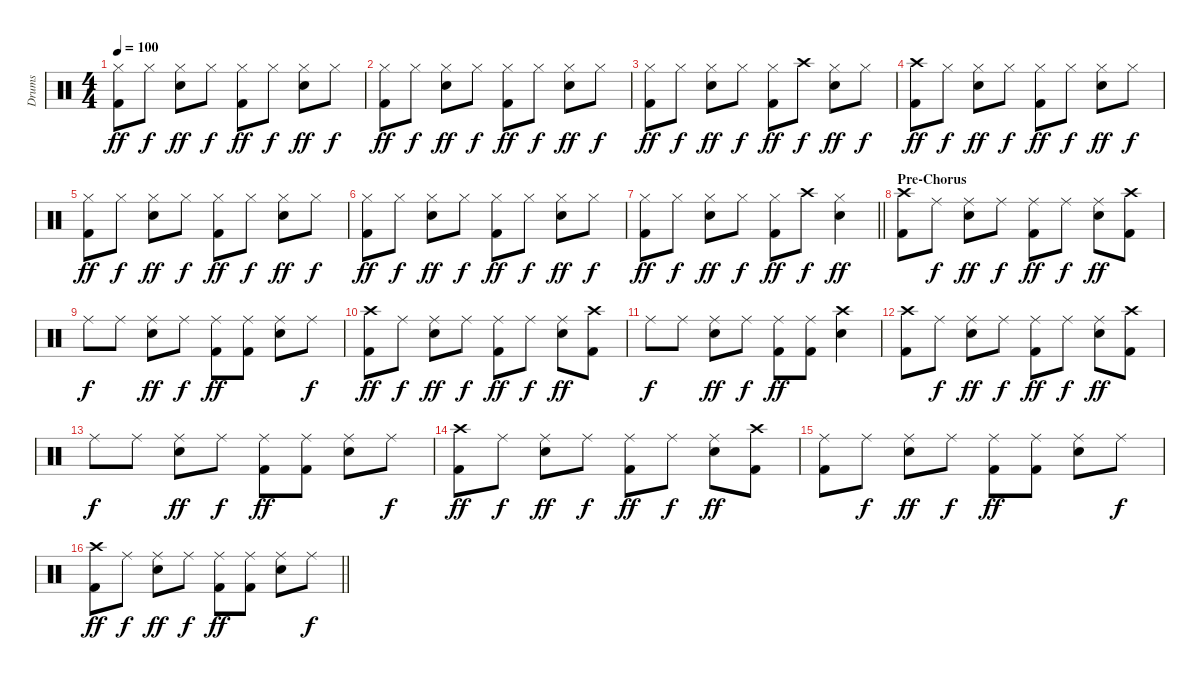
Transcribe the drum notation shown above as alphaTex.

\track ("Drums" "Drums") {instrument percussion}
\staff {score}
\articulation defaults
\ts (4 4)
\tempo 100
\clef neutral
\ks c
("Hi-Hat (closed)" "Kick (hit) 2").8{dy ff} "Hi-Hat (closed)".8{dy f} ("Hi-Hat (closed)" "Snare (hit) 2").8{dy ff} "Hi-Hat (closed)".8{dy f} ("Hi-Hat (closed)" "Kick (hit) 2").8{dy ff} "Hi-Hat (closed)".8{dy f} ("Hi-Hat (closed)" "Snare (hit) 2").8{dy ff} "Hi-Hat (closed)".8{dy f} |
("Hi-Hat (closed)" "Kick (hit) 2").8{dy ff} "Hi-Hat (closed)".8{dy f} ("Hi-Hat (closed)" "Snare (hit) 2").8{dy ff} "Hi-Hat (closed)".8{dy f} ("Hi-Hat (closed)" "Kick (hit) 2").8{dy ff} "Hi-Hat (closed)".8{dy f} ("Hi-Hat (closed)" "Snare (hit) 2").8{dy ff} "Hi-Hat (closed)".8{dy f} |
("Hi-Hat (closed)" "Kick (hit) 2").8{dy ff} "Hi-Hat (closed)".8{dy f} ("Hi-Hat (closed)" "Snare (hit) 2").8{dy ff} "Hi-Hat (closed)".8{dy f} ("Hi-Hat (closed)" "Kick (hit) 2").8{dy ff} "Crash high (hit)".8{dy f} ("Hi-Hat (closed)" "Snare (hit) 2").8{dy ff} "Hi-Hat (closed)".8{dy f} |
("Crash high (hit)" "Kick (hit) 2").8{dy ff} "Hi-Hat (closed)".8{dy f} ("Hi-Hat (closed)" "Snare (hit) 2").8{dy ff} "Hi-Hat (closed)".8{dy f} ("Hi-Hat (closed)" "Kick (hit) 2").8{dy ff} "Hi-Hat (closed)".8{dy f} ("Hi-Hat (closed)" "Snare (hit) 2").8{dy ff} "Hi-Hat (closed)".8{dy f} |
("Hi-Hat (closed)" "Kick (hit) 2").8{dy ff} "Hi-Hat (closed)".8{dy f} ("Hi-Hat (closed)" "Snare (hit) 2").8{dy ff} "Hi-Hat (closed)".8{dy f} ("Hi-Hat (closed)" "Kick (hit) 2").8{dy ff} "Hi-Hat (closed)".8{dy f} ("Hi-Hat (closed)" "Snare (hit) 2").8{dy ff} "Hi-Hat (closed)".8{dy f} |
("Hi-Hat (closed)" "Kick (hit) 2").8{dy ff} "Hi-Hat (closed)".8{dy f} ("Hi-Hat (closed)" "Snare (hit) 2").8{dy ff} "Hi-Hat (closed)".8{dy f} ("Hi-Hat (closed)" "Kick (hit) 2").8{dy ff} "Hi-Hat (closed)".8{dy f} ("Hi-Hat (closed)" "Snare (hit) 2").8{dy ff} "Hi-Hat (closed)".8{dy f} |
\barLineRight lightlight
("Hi-Hat (closed)" "Kick (hit) 2").8{dy ff} "Hi-Hat (closed)".8{dy f} ("Hi-Hat (closed)" "Snare (hit) 2").8{dy ff} "Hi-Hat (closed)".8{dy f} ("Hi-Hat (closed)" "Kick (hit) 2").8{dy ff} "Crash high (hit)".8{dy f} ("Hi-Hat (closed)" "Snare (hit) 2").4{dy ff} |
\section ("" "Pre-Chorus")
("Crash high (hit)" "Kick (hit) 2").8 "Ride (middle)".8{dy f} ("Ride (middle)" "Snare (hit) 2").8{dy ff} "Ride (middle)".8{dy f} ("Ride (middle)" "Kick (hit) 2").8{dy ff} "Ride (middle)".8{dy f} ("Ride (middle)" "Snare (hit) 2").8{dy ff} ("Crash high (hit)" "Kick (hit) 2").8 |
"Ride (middle)".8{dy f} "Ride (middle)".8 ("Ride (middle)" "Snare (hit) 2").8{dy ff} "Ride (middle)".8{dy f} ("Ride (middle)" "Kick (hit) 2").8{dy ff} ("Ride (middle)" "Kick (hit) 2").8 ("Ride (middle)" "Snare (hit) 2").8 "Ride (middle)".8{dy f} |
("Crash high (hit)" "Kick (hit) 2").8{dy ff} "Ride (middle)".8{dy f} ("Ride (middle)" "Snare (hit) 2").8{dy ff} "Ride (middle)".8{dy f} ("Ride (middle)" "Kick (hit) 2").8{dy ff} "Ride (middle)".8{dy f} ("Ride (middle)" "Snare (hit) 2").8{dy ff} ("Crash high (hit)" "Kick (hit) 2").8 |
"Ride (middle)".8{dy f} "Ride (middle)".8 ("Ride (middle)" "Snare (hit) 2").8{dy ff} "Ride (middle)".8{dy f} ("Ride (middle)" "Kick (hit) 2").8{dy ff} ("Ride (middle)" "Kick (hit) 2").8 ("Crash high (hit)" "Snare (hit) 2").4 |
("Crash high (hit)" "Kick (hit) 2").8 "Ride (middle)".8{dy f} ("Ride (middle)" "Snare (hit) 2").8{dy ff} "Ride (middle)".8{dy f} ("Ride (middle)" "Kick (hit) 2").8{dy ff} "Ride (middle)".8{dy f} ("Ride (middle)" "Snare (hit) 2").8{dy ff} ("Crash high (hit)" "Kick (hit) 2").8 |
"Ride (middle)".8{dy f} "Ride (middle)".8 ("Ride (middle)" "Snare (hit) 2").8{dy ff} "Ride (middle)".8{dy f} ("Ride (middle)" "Kick (hit) 2").8{dy ff} ("Ride (middle)" "Kick (hit) 2").8 ("Ride (middle)" "Snare (hit) 2").8 "Ride (middle)".8{dy f} |
("Crash high (hit)" "Kick (hit) 2").8{dy ff} "Ride (middle)".8{dy f} ("Ride (middle)" "Snare (hit) 2").8{dy ff} "Ride (middle)".8{dy f} ("Ride (middle)" "Kick (hit) 2").8{dy ff} "Ride (middle)".8{dy f} ("Ride (middle)" "Snare (hit) 2").8{dy ff} ("Crash high (hit)" "Kick (hit) 2").8 |
("Ride (middle)" "Kick (hit) 2").8 "Ride (middle)".8{dy f} ("Ride (middle)" "Snare (hit) 2").8{dy ff} "Ride (middle)".8{dy f} ("Ride (middle)" "Kick (hit) 2").8{dy ff} ("Ride (middle)" "Kick (hit) 2").8 ("Ride (middle)" "Snare (hit) 2").8 "Ride (middle)".8{dy f} |
\barLineRight lightlight
("Crash high (hit)" "Kick (hit) 2").8{dy ff} "Ride (middle)".8{dy f} ("Ride (middle)" "Snare (hit) 2").8{dy ff} "Ride (middle)".8{dy f} ("Ride (middle)" "Kick (hit) 2").8{dy ff} ("Ride (middle)" "Kick (hit) 2").8 ("Ride (middle)" "Snare (hit) 2").8 "Ride (middle)".8{dy f}
